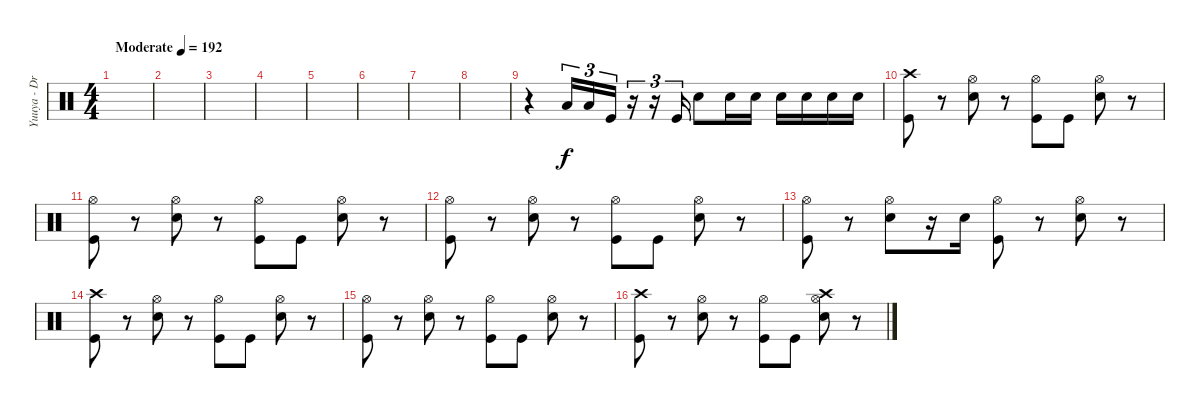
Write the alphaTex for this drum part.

\track ("Yuuya - Drums" "Yuuya - Dr") {instrument percussion}
\staff {score}
\articulation defaults
\ts (4 4)
\tempo (192 "Moderate")
\clef neutral
\ks c
|
|
|
|
|
|
|
|
r.4 "Low Tom (hit)".16{tu (3 2)} "Low Tom (hit)".16{tu (3 2)} "Kick (hit)".16{tu (3 2)} r.16{tu (3 2)} r.16{tu (3 2)} "Kick (hit)".16{tu (3 2)} "Electric Snare (hit)".8 "Electric Snare (hit)".16 "Electric Snare (hit)".16 "Electric Snare (hit)".16 "Electric Snare (hit)".16 "Electric Snare (hit)".16 "Electric Snare (hit)".16 |
("Kick (hit)" "Crash high (hit)").8 r.8 ("Electric Snare (hit)" "Hi-Hat (open)").8 r.8 ("Kick (hit)" "Hi-Hat (open)").8 "Kick (hit)".8 ("Electric Snare (hit)" "Hi-Hat (open)").8 r.8 |
("Kick (hit)" "Hi-Hat (open)").8 r.8 ("Electric Snare (hit)" "Hi-Hat (open)").8 r.8 ("Kick (hit)" "Hi-Hat (open)").8 "Kick (hit)".8 ("Electric Snare (hit)" "Hi-Hat (open)").8 r.8 |
("Kick (hit)" "Hi-Hat (open)").8 r.8 ("Electric Snare (hit)" "Hi-Hat (open)").8 r.8 ("Kick (hit)" "Hi-Hat (open)").8 "Kick (hit)".8 ("Electric Snare (hit)" "Hi-Hat (open)").8 r.8 |
("Kick (hit)" "Hi-Hat (open)").8 r.8 ("Electric Snare (hit)" "Hi-Hat (open)").8 r.16 "Electric Snare (hit)".16 ("Kick (hit)" "Hi-Hat (open)").8 r.8 ("Electric Snare (hit)" "Hi-Hat (open)").8 r.8 |
("Kick (hit)" "Crash high (hit)").8 r.8 ("Electric Snare (hit)" "Hi-Hat (open)").8 r.8 ("Kick (hit)" "Hi-Hat (open)").8 "Kick (hit)".8 ("Electric Snare (hit)" "Hi-Hat (open)").8 r.8 |
("Kick (hit)" "Hi-Hat (open)").8 r.8 ("Electric Snare (hit)" "Hi-Hat (open)").8 r.8 ("Kick (hit)" "Hi-Hat (open)").8 "Kick (hit)".8 ("Electric Snare (hit)" "Hi-Hat (open)").8 r.8 |
("Kick (hit)" "Crash high (hit)").8 r.8 ("Electric Snare (hit)" "Hi-Hat (open)").8 r.8 ("Kick (hit)" "Hi-Hat (open)").8 "Kick (hit)".8 ("Electric Snare (hit)" "Hi-Hat (open)" "Crash high (hit)").8 r.8
